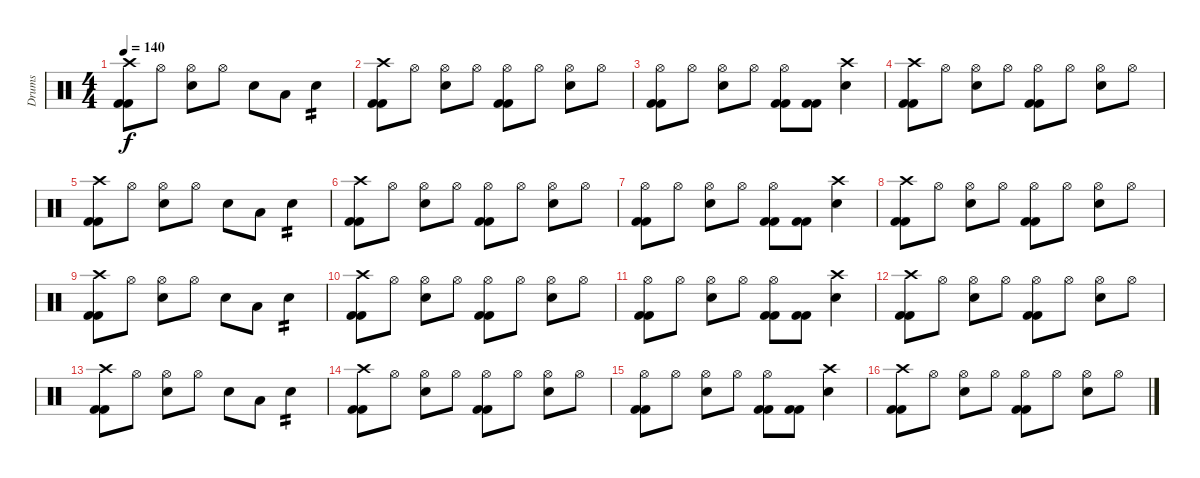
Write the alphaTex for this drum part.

\track ("Drums" "Drums") {instrument percussion}
\staff {score}
\articulation defaults
\ts (4 4)
\tempo 140
\clef neutral
\ks c
("Crash high (hit)" "Kick (hit) 2" "Kick (hit) 2").8{dy f} "Hi-Hat (open)".8 ("Electric Snare (hit)" "Hi-Hat (open)").8 "Hi-Hat (open)".8 "Electric Snare (hit)".8 "Low Tom (hit)".8 "Electric Snare (hit)".4{tp 2} |
("Crash high (hit)" "Kick (hit) 2" "Kick (hit) 2").8 "Hi-Hat (open)".8 ("Electric Snare (hit)" "Hi-Hat (open)").8 "Hi-Hat (open)".8 ("Hi-Hat (open)" "Kick (hit) 2" "Kick (hit) 2").8 "Hi-Hat (open)".8 ("Electric Snare (hit)" "Hi-Hat (open)").8 "Hi-Hat (open)".8 |
("Hi-Hat (open)" "Kick (hit) 2" "Kick (hit) 2").8 "Hi-Hat (open)".8 ("Electric Snare (hit)" "Hi-Hat (open)").8 "Hi-Hat (open)".8 ("Hi-Hat (open)" "Kick (hit) 2" "Kick (hit) 2").8 ("Kick (hit) 2" "Kick (hit) 2").8 ("Electric Snare (hit)" "Crash high (hit)").4 |
("Crash high (hit)" "Kick (hit) 2" "Kick (hit) 2").8 "Hi-Hat (open)".8 ("Electric Snare (hit)" "Hi-Hat (open)").8 "Hi-Hat (open)".8 ("Hi-Hat (open)" "Kick (hit) 2" "Kick (hit) 2").8 "Hi-Hat (open)".8 ("Electric Snare (hit)" "Hi-Hat (open)").8 "Hi-Hat (open)".8 |
("Crash high (hit)" "Kick (hit) 2" "Kick (hit) 2").8 "Hi-Hat (open)".8 ("Electric Snare (hit)" "Hi-Hat (open)").8 "Hi-Hat (open)".8 "Electric Snare (hit)".8 "Low Tom (hit)".8 "Electric Snare (hit)".4{tp 2} |
("Crash high (hit)" "Kick (hit) 2" "Kick (hit) 2").8 "Hi-Hat (open)".8 ("Electric Snare (hit)" "Hi-Hat (open)").8 "Hi-Hat (open)".8 ("Hi-Hat (open)" "Kick (hit) 2" "Kick (hit) 2").8 "Hi-Hat (open)".8 ("Electric Snare (hit)" "Hi-Hat (open)").8 "Hi-Hat (open)".8 |
("Hi-Hat (open)" "Kick (hit) 2" "Kick (hit) 2").8 "Hi-Hat (open)".8 ("Electric Snare (hit)" "Hi-Hat (open)").8 "Hi-Hat (open)".8 ("Hi-Hat (open)" "Kick (hit) 2" "Kick (hit) 2").8 ("Kick (hit) 2" "Kick (hit) 2").8 ("Electric Snare (hit)" "Crash high (hit)").4 |
("Crash high (hit)" "Kick (hit) 2" "Kick (hit) 2").8 "Hi-Hat (open)".8 ("Electric Snare (hit)" "Hi-Hat (open)").8 "Hi-Hat (open)".8 ("Hi-Hat (open)" "Kick (hit) 2" "Kick (hit) 2").8 "Hi-Hat (open)".8 ("Electric Snare (hit)" "Hi-Hat (open)").8 "Hi-Hat (open)".8 |
("Crash high (hit)" "Kick (hit) 2" "Kick (hit) 2").8 "Hi-Hat (open)".8 ("Electric Snare (hit)" "Hi-Hat (open)").8 "Hi-Hat (open)".8 "Electric Snare (hit)".8 "Low Tom (hit)".8 "Electric Snare (hit)".4{tp 2} |
("Crash high (hit)" "Kick (hit) 2" "Kick (hit) 2").8 "Hi-Hat (open)".8 ("Electric Snare (hit)" "Hi-Hat (open)").8 "Hi-Hat (open)".8 ("Hi-Hat (open)" "Kick (hit) 2" "Kick (hit) 2").8 "Hi-Hat (open)".8 ("Electric Snare (hit)" "Hi-Hat (open)").8 "Hi-Hat (open)".8 |
("Hi-Hat (open)" "Kick (hit) 2" "Kick (hit) 2").8 "Hi-Hat (open)".8 ("Electric Snare (hit)" "Hi-Hat (open)").8 "Hi-Hat (open)".8 ("Hi-Hat (open)" "Kick (hit) 2" "Kick (hit) 2").8 ("Kick (hit) 2" "Kick (hit) 2").8 ("Electric Snare (hit)" "Crash high (hit)").4 |
("Crash high (hit)" "Kick (hit) 2" "Kick (hit) 2").8 "Hi-Hat (open)".8 ("Electric Snare (hit)" "Hi-Hat (open)").8 "Hi-Hat (open)".8 ("Hi-Hat (open)" "Kick (hit) 2" "Kick (hit) 2").8 "Hi-Hat (open)".8 ("Electric Snare (hit)" "Hi-Hat (open)").8 "Hi-Hat (open)".8 |
("Crash high (hit)" "Kick (hit) 2" "Kick (hit) 2").8 "Hi-Hat (open)".8 ("Electric Snare (hit)" "Hi-Hat (open)").8 "Hi-Hat (open)".8 "Electric Snare (hit)".8 "Low Tom (hit)".8 "Electric Snare (hit)".4{tp 2} |
("Crash high (hit)" "Kick (hit) 2" "Kick (hit) 2").8 "Hi-Hat (open)".8 ("Electric Snare (hit)" "Hi-Hat (open)").8 "Hi-Hat (open)".8 ("Hi-Hat (open)" "Kick (hit) 2" "Kick (hit) 2").8 "Hi-Hat (open)".8 ("Electric Snare (hit)" "Hi-Hat (open)").8 "Hi-Hat (open)".8 |
("Hi-Hat (open)" "Kick (hit) 2" "Kick (hit) 2").8 "Hi-Hat (open)".8 ("Electric Snare (hit)" "Hi-Hat (open)").8 "Hi-Hat (open)".8 ("Hi-Hat (open)" "Kick (hit) 2" "Kick (hit) 2").8 ("Kick (hit) 2" "Kick (hit) 2").8 ("Electric Snare (hit)" "Crash high (hit)").4 |
("Crash high (hit)" "Kick (hit) 2" "Kick (hit) 2").8 "Hi-Hat (open)".8 ("Electric Snare (hit)" "Hi-Hat (open)").8 "Hi-Hat (open)".8 ("Hi-Hat (open)" "Kick (hit) 2" "Kick (hit) 2").8 "Hi-Hat (open)".8 ("Electric Snare (hit)" "Hi-Hat (open)").8 "Hi-Hat (open)".8
